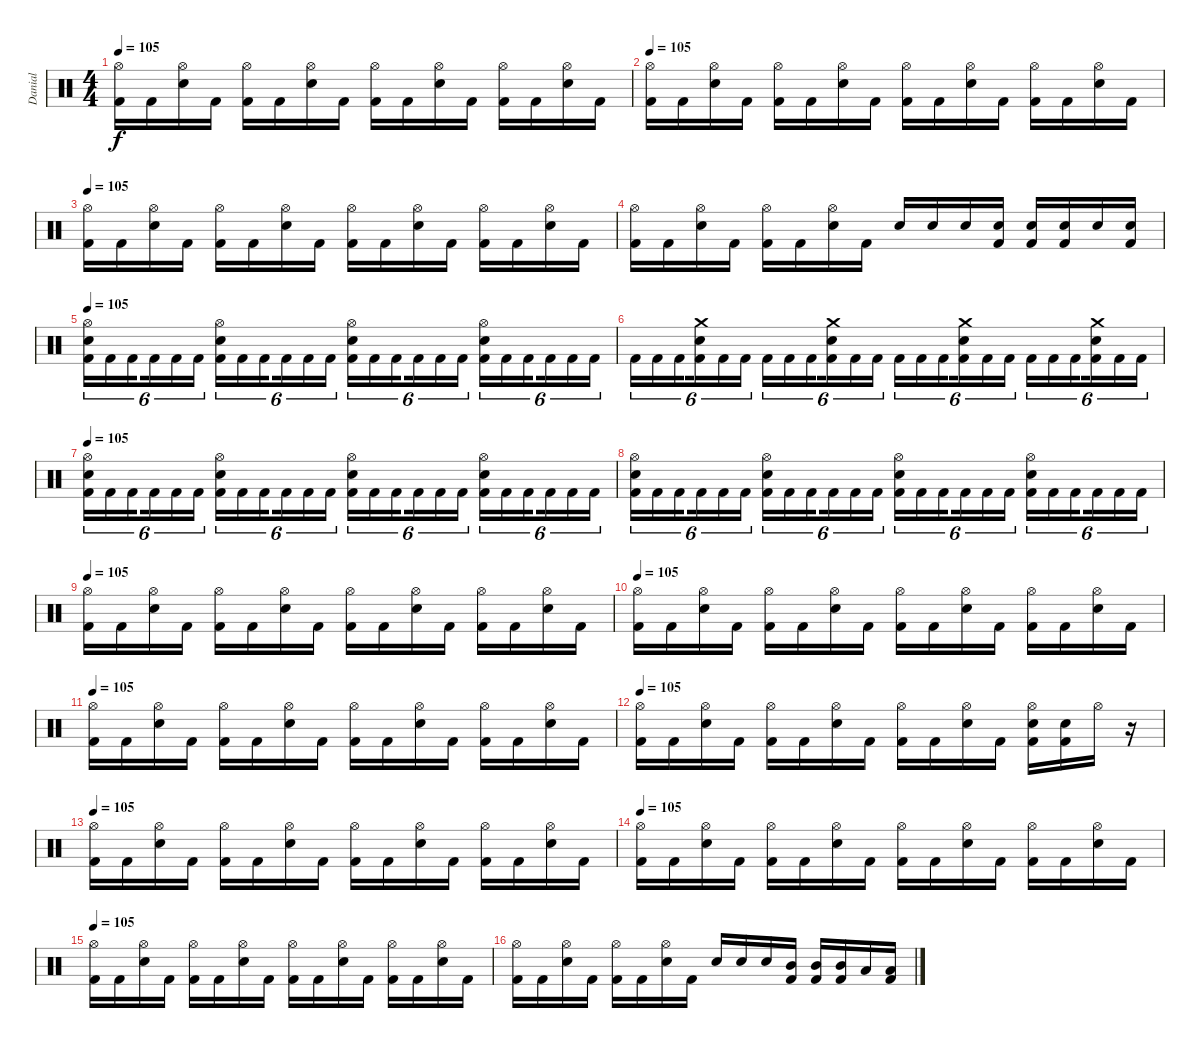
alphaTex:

\track ("Danial" "Danial") {instrument percussion}
\staff {score}
\articulation defaults
\ts (4 4)
\tempo 105
\clef neutral
\ks c
("Hi-Hat (open)" "Kick (hit) 2").16{dy f} "Kick (hit) 2".16 ("Hi-Hat (open)" "Snare (hit) 2").16 "Kick (hit) 2".16 ("Hi-Hat (open)" "Kick (hit) 2").16 "Kick (hit) 2".16 ("Hi-Hat (open)" "Snare (hit) 2").16 "Kick (hit) 2".16 ("Hi-Hat (open)" "Kick (hit) 2").16 "Kick (hit) 2".16 ("Hi-Hat (open)" "Snare (hit) 2").16 "Kick (hit) 2".16 ("Hi-Hat (open)" "Kick (hit) 2").16 "Kick (hit) 2".16 ("Hi-Hat (open)" "Snare (hit) 2").16 "Kick (hit) 2".16 |
\tempo 105
("Hi-Hat (open)" "Kick (hit) 2").16 "Kick (hit) 2".16 ("Hi-Hat (open)" "Snare (hit) 2").16 "Kick (hit) 2".16 ("Hi-Hat (open)" "Kick (hit) 2").16 "Kick (hit) 2".16 ("Hi-Hat (open)" "Snare (hit) 2").16 "Kick (hit) 2".16 ("Hi-Hat (open)" "Kick (hit) 2").16 "Kick (hit) 2".16 ("Hi-Hat (open)" "Snare (hit) 2").16 "Kick (hit) 2".16 ("Hi-Hat (open)" "Kick (hit) 2").16 "Kick (hit) 2".16 ("Hi-Hat (open)" "Snare (hit) 2").16 "Kick (hit) 2".16 |
\tempo 105
("Hi-Hat (open)" "Kick (hit) 2").16 "Kick (hit) 2".16 ("Hi-Hat (open)" "Snare (hit) 2").16 "Kick (hit) 2".16 ("Hi-Hat (open)" "Kick (hit) 2").16 "Kick (hit) 2".16 ("Hi-Hat (open)" "Snare (hit) 2").16 "Kick (hit) 2".16 ("Hi-Hat (open)" "Kick (hit) 2").16 "Kick (hit) 2".16 ("Hi-Hat (open)" "Snare (hit) 2").16 "Kick (hit) 2".16 ("Hi-Hat (open)" "Kick (hit) 2").16 "Kick (hit) 2".16 ("Hi-Hat (open)" "Snare (hit) 2").16 "Kick (hit) 2".16 |
("Hi-Hat (open)" "Kick (hit) 2").16 "Kick (hit) 2".16 ("Hi-Hat (open)" "Snare (hit) 2").16 "Kick (hit) 2".16 ("Hi-Hat (open)" "Kick (hit) 2").16 "Kick (hit) 2".16 ("Hi-Hat (open)" "Snare (hit) 2").16 "Kick (hit) 2".16 "Snare (hit) 2".16 "Snare (hit) 2".16 "Snare (hit) 2".16 ("Snare (hit) 2" "Kick (hit) 2").16 ("Snare (hit) 2" "Kick (hit) 2").16 ("Snare (hit) 2" "Kick (hit) 2").16 "Snare (hit) 2".16 ("Snare (hit) 2" "Kick (hit) 2").16 |
\tempo 105
("Hi-Hat (open)" "Snare (hit) 2" "Kick (hit) 2").16{tu (6 4)} "Kick (hit) 2".16{tu (6 4)} "Kick (hit) 2".16{tu (6 4) beam splitsecondary} "Kick (hit) 2".16{tu (6 4)} "Kick (hit) 2".16{tu (6 4)} "Kick (hit) 2".16{tu (6 4)} ("Hi-Hat (open)" "Snare (hit) 2" "Kick (hit) 2").16{tu (6 4)} "Kick (hit) 2".16{tu (6 4)} "Kick (hit) 2".16{tu (6 4) beam splitsecondary} "Kick (hit) 2".16{tu (6 4)} "Kick (hit) 2".16{tu (6 4)} "Kick (hit) 2".16{tu (6 4)} ("Hi-Hat (open)" "Snare (hit) 2" "Kick (hit) 2").16{tu (6 4)} "Kick (hit) 2".16{tu (6 4)} "Kick (hit) 2".16{tu (6 4) beam splitsecondary} "Kick (hit) 2".16{tu (6 4)} "Kick (hit) 2".16{tu (6 4)} "Kick (hit) 2".16{tu (6 4)} ("Hi-Hat (open)" "Snare (hit) 2" "Kick (hit) 2").16{tu (6 4)} "Kick (hit) 2".16{tu (6 4)} "Kick (hit) 2".16{tu (6 4) beam splitsecondary} "Kick (hit) 2".16{tu (6 4)} "Kick (hit) 2".16{tu (6 4)} "Kick (hit) 2".16{tu (6 4)} |
"Kick (hit) 2".16{tu (6 4)} "Kick (hit) 2".16{tu (6 4)} "Kick (hit) 2".16{tu (6 4) beam splitsecondary} ("Crash medium (hit)" "Snare (hit) 2" "Kick (hit) 2").16{tu (6 4)} "Kick (hit) 2".16{tu (6 4)} "Kick (hit) 2".16{tu (6 4)} "Kick (hit) 2".16{tu (6 4)} "Kick (hit) 2".16{tu (6 4)} "Kick (hit) 2".16{tu (6 4) beam splitsecondary} ("Crash medium (hit)" "Snare (hit) 2" "Kick (hit) 2").16{tu (6 4)} "Kick (hit) 2".16{tu (6 4)} "Kick (hit) 2".16{tu (6 4)} "Kick (hit) 2".16{tu (6 4)} "Kick (hit) 2".16{tu (6 4)} "Kick (hit) 2".16{tu (6 4) beam splitsecondary} ("Crash medium (hit)" "Snare (hit) 2" "Kick (hit) 2").16{tu (6 4)} "Kick (hit) 2".16{tu (6 4)} "Kick (hit) 2".16{tu (6 4)} "Kick (hit) 2".16{tu (6 4)} "Kick (hit) 2".16{tu (6 4)} "Kick (hit) 2".16{tu (6 4) beam splitsecondary} ("Snare (hit) 2" "Crash medium (hit)" "Kick (hit) 2").16{tu (6 4)} "Kick (hit) 2".16{tu (6 4)} "Kick (hit) 2".16{tu (6 4)} |
\tempo 105
("Hi-Hat (open)" "Snare (hit) 2" "Kick (hit) 2").16{tu (6 4)} "Kick (hit) 2".16{tu (6 4)} "Kick (hit) 2".16{tu (6 4) beam splitsecondary} "Kick (hit) 2".16{tu (6 4)} "Kick (hit) 2".16{tu (6 4)} "Kick (hit) 2".16{tu (6 4)} ("Hi-Hat (open)" "Snare (hit) 2" "Kick (hit) 2").16{tu (6 4)} "Kick (hit) 2".16{tu (6 4)} "Kick (hit) 2".16{tu (6 4) beam splitsecondary} "Kick (hit) 2".16{tu (6 4)} "Kick (hit) 2".16{tu (6 4)} "Kick (hit) 2".16{tu (6 4)} ("Hi-Hat (open)" "Snare (hit) 2" "Kick (hit) 2").16{tu (6 4)} "Kick (hit) 2".16{tu (6 4)} "Kick (hit) 2".16{tu (6 4) beam splitsecondary} "Kick (hit) 2".16{tu (6 4)} "Kick (hit) 2".16{tu (6 4)} "Kick (hit) 2".16{tu (6 4)} ("Hi-Hat (open)" "Snare (hit) 2" "Kick (hit) 2").16{tu (6 4)} "Kick (hit) 2".16{tu (6 4)} "Kick (hit) 2".16{tu (6 4) beam splitsecondary} "Kick (hit) 2".16{tu (6 4)} "Kick (hit) 2".16{tu (6 4)} "Kick (hit) 2".16{tu (6 4)} |
("Hi-Hat (open)" "Snare (hit) 2" "Kick (hit) 2").16{tu (6 4)} "Kick (hit) 2".16{tu (6 4)} "Kick (hit) 2".16{tu (6 4) beam splitsecondary} "Kick (hit) 2".16{tu (6 4)} "Kick (hit) 2".16{tu (6 4)} "Kick (hit) 2".16{tu (6 4)} ("Hi-Hat (open)" "Snare (hit) 2" "Kick (hit) 2").16{tu (6 4)} "Kick (hit) 2".16{tu (6 4)} "Kick (hit) 2".16{tu (6 4) beam splitsecondary} "Kick (hit) 2".16{tu (6 4)} "Kick (hit) 2".16{tu (6 4)} "Kick (hit) 2".16{tu (6 4)} ("Hi-Hat (open)" "Snare (hit) 2" "Kick (hit) 2").16{tu (6 4)} "Kick (hit) 2".16{tu (6 4)} "Kick (hit) 2".16{tu (6 4) beam splitsecondary} "Kick (hit) 2".16{tu (6 4)} "Kick (hit) 2".16{tu (6 4)} "Kick (hit) 2".16{tu (6 4)} ("Hi-Hat (open)" "Snare (hit) 2" "Kick (hit) 2").16{tu (6 4)} "Kick (hit) 2".16{tu (6 4)} "Kick (hit) 2".16{tu (6 4) beam splitsecondary} "Kick (hit) 2".16{tu (6 4)} "Kick (hit) 2".16{tu (6 4)} "Kick (hit) 2".16{tu (6 4)} |
\tempo 105
("Hi-Hat (open)" "Kick (hit) 2").16 "Kick (hit) 2".16 ("Hi-Hat (open)" "Snare (hit) 2").16 "Kick (hit) 2".16 ("Hi-Hat (open)" "Kick (hit) 2").16 "Kick (hit) 2".16 ("Hi-Hat (open)" "Snare (hit) 2").16 "Kick (hit) 2".16 ("Hi-Hat (open)" "Kick (hit) 2").16 "Kick (hit) 2".16 ("Hi-Hat (open)" "Snare (hit) 2").16 "Kick (hit) 2".16 ("Hi-Hat (open)" "Kick (hit) 2").16 "Kick (hit) 2".16 ("Hi-Hat (open)" "Snare (hit) 2").16 "Kick (hit) 2".16 |
\tempo 105
("Hi-Hat (open)" "Kick (hit) 2").16 "Kick (hit) 2".16 ("Hi-Hat (open)" "Snare (hit) 2").16 "Kick (hit) 2".16 ("Hi-Hat (open)" "Kick (hit) 2").16 "Kick (hit) 2".16 ("Hi-Hat (open)" "Snare (hit) 2").16 "Kick (hit) 2".16 ("Hi-Hat (open)" "Kick (hit) 2").16 "Kick (hit) 2".16 ("Hi-Hat (open)" "Snare (hit) 2").16 "Kick (hit) 2".16 ("Hi-Hat (open)" "Kick (hit) 2").16 "Kick (hit) 2".16 ("Hi-Hat (open)" "Snare (hit) 2").16 "Kick (hit) 2".16 |
\tempo 105
("Hi-Hat (open)" "Kick (hit) 2").16 "Kick (hit) 2".16 ("Hi-Hat (open)" "Snare (hit) 2").16 "Kick (hit) 2".16 ("Hi-Hat (open)" "Kick (hit) 2").16 "Kick (hit) 2".16 ("Hi-Hat (open)" "Snare (hit) 2").16 "Kick (hit) 2".16 ("Hi-Hat (open)" "Kick (hit) 2").16 "Kick (hit) 2".16 ("Hi-Hat (open)" "Snare (hit) 2").16 "Kick (hit) 2".16 ("Hi-Hat (open)" "Kick (hit) 2").16 "Kick (hit) 2".16 ("Hi-Hat (open)" "Snare (hit) 2").16 "Kick (hit) 2".16 |
\tempo 105
("Hi-Hat (open)" "Kick (hit) 2").16 "Kick (hit) 2".16 ("Hi-Hat (open)" "Snare (hit) 2").16 "Kick (hit) 2".16 ("Hi-Hat (open)" "Kick (hit) 2").16 "Kick (hit) 2".16 ("Hi-Hat (open)" "Snare (hit) 2").16 "Kick (hit) 2".16 ("Hi-Hat (open)" "Kick (hit) 2").16 "Kick (hit) 2".16 ("Hi-Hat (open)" "Snare (hit) 2").16 "Kick (hit) 2".16 ("Hi-Hat (open)" "Snare (hit) 2" "Kick (hit) 2").16 ("Snare (hit) 2" "Kick (hit) 2").16 "Hi-Hat (open)".16 r.16 |
\tempo 105
("Hi-Hat (open)" "Kick (hit) 2").16 "Kick (hit) 2".16 ("Hi-Hat (open)" "Snare (hit) 2").16 "Kick (hit) 2".16 ("Hi-Hat (open)" "Kick (hit) 2").16 "Kick (hit) 2".16 ("Hi-Hat (open)" "Snare (hit) 2").16 "Kick (hit) 2".16 ("Hi-Hat (open)" "Kick (hit) 2").16 "Kick (hit) 2".16 ("Hi-Hat (open)" "Snare (hit) 2").16 "Kick (hit) 2".16 ("Hi-Hat (open)" "Kick (hit) 2").16 "Kick (hit) 2".16 ("Hi-Hat (open)" "Snare (hit) 2").16 "Kick (hit) 2".16 |
\tempo 105
("Hi-Hat (open)" "Kick (hit) 2").16 "Kick (hit) 2".16 ("Hi-Hat (open)" "Snare (hit) 2").16 "Kick (hit) 2".16 ("Hi-Hat (open)" "Kick (hit) 2").16 "Kick (hit) 2".16 ("Hi-Hat (open)" "Snare (hit) 2").16 "Kick (hit) 2".16 ("Hi-Hat (open)" "Kick (hit) 2").16 "Kick (hit) 2".16 ("Hi-Hat (open)" "Snare (hit) 2").16 "Kick (hit) 2".16 ("Hi-Hat (open)" "Kick (hit) 2").16 "Kick (hit) 2".16 ("Hi-Hat (open)" "Snare (hit) 2").16 "Kick (hit) 2".16 |
\tempo 105
("Hi-Hat (open)" "Kick (hit) 2").16 "Kick (hit) 2".16 ("Hi-Hat (open)" "Snare (hit) 2").16 "Kick (hit) 2".16 ("Hi-Hat (open)" "Kick (hit) 2").16 "Kick (hit) 2".16 ("Hi-Hat (open)" "Snare (hit) 2").16 "Kick (hit) 2".16 ("Hi-Hat (open)" "Kick (hit) 2").16 "Kick (hit) 2".16 ("Hi-Hat (open)" "Snare (hit) 2").16 "Kick (hit) 2".16 ("Hi-Hat (open)" "Kick (hit) 2").16 "Kick (hit) 2".16 ("Hi-Hat (open)" "Snare (hit) 2").16 "Kick (hit) 2".16 |
("Hi-Hat (open)" "Kick (hit) 2").16 "Kick (hit) 2".16 ("Hi-Hat (open)" "Snare (hit) 2").16 "Kick (hit) 2".16 ("Hi-Hat (open)" "Kick (hit) 2").16 "Kick (hit) 2".16 ("Hi-Hat (open)" "Snare (hit) 2").16 "Kick (hit) 2".16 "Snare (hit) 2".16 "Snare (hit) 2".16 "Snare (hit) 2".16 ("Mid Tom (hit)" "Kick (hit) 2").16 ("Mid Tom (hit)" "Kick (hit) 2").16 ("Mid Tom (hit)" "Kick (hit) 2").16 "Low Tom (hit)".16 ("Low Tom (hit)" "Kick (hit) 2").16
